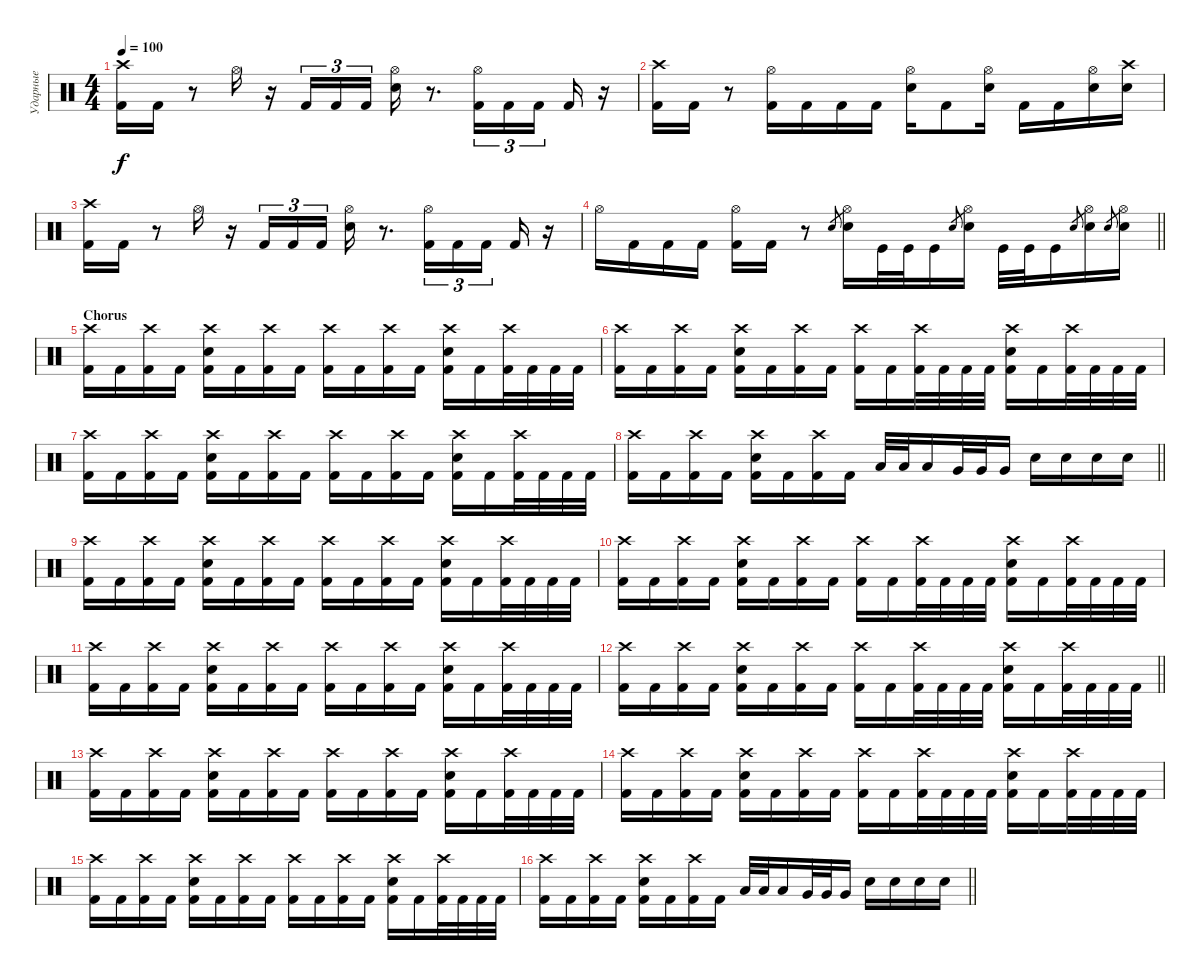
\track ("Ударные" "Ударные") {instrument percussion}
\staff {score}
\articulation defaults
\ts (4 4)
\tempo 100
\clef neutral
\ks c
("Crash high (hit)" "Kick (hit) 2").16{dy f} "Kick (hit) 2".16 r.8 "Hi-Hat (open)".16 r.16 "Kick (hit) 2".16{tu (3 2)} "Kick (hit) 2".16{tu (3 2)} "Kick (hit) 2".16{tu (3 2)} ("Hi-Hat (open)" "Electric Snare (hit)").16 r.8{d} ("Hi-Hat (open)" "Kick (hit) 2").16{tu (3 2)} "Kick (hit) 2".16{tu (3 2)} "Kick (hit) 2".16{tu (3 2) beam splitsecondary} "Kick (hit) 2".16 r.16 |
("Crash high (hit)" "Kick (hit) 2").16 "Kick (hit) 2".16 r.8 ("Hi-Hat (open)" "Kick (hit) 2").16 "Kick (hit) 2".16 "Kick (hit) 2".16 "Kick (hit) 2".16 ("Hi-Hat (open)" "Electric Snare (hit)").16 "Kick (hit) 2".8 ("Hi-Hat (open)" "Electric Snare (hit)").16 "Kick (hit) 2".16 "Kick (hit) 2".16 ("Hi-Hat (open)" "Electric Snare (hit)").16 ("Crash high (hit)" "Electric Snare (hit)").16 |
("Crash high (hit)" "Kick (hit) 2").16 "Kick (hit) 2".16 r.8 "Hi-Hat (open)".16 r.16 "Kick (hit) 2".16{tu (3 2)} "Kick (hit) 2".16{tu (3 2)} "Kick (hit) 2".16{tu (3 2)} ("Hi-Hat (open)" "Electric Snare (hit)").16 r.8{d} ("Hi-Hat (open)" "Kick (hit) 2").16{tu (3 2)} "Kick (hit) 2".16{tu (3 2)} "Kick (hit) 2".16{tu (3 2) beam splitsecondary} "Kick (hit) 2".16 r.16 |
\barLineRight lightlight "Hi-Hat (open)".16 "Kick (hit) 2".16 "Kick (hit) 2".16 "Kick (hit) 2".16
("Hi-Hat (open)" "Kick (hit) 2").16 "Kick (hit) 2".16 r.8 "Electric Snare (hit)".8{gr} ("Hi-Hat (open)" "Electric Snare (hit)").16 "Kick (hit)".32 "Kick (hit)".32 "Kick (hit)".16 "Electric Snare (hit)".8{gr} ("Hi-Hat (open)" "Electric Snare (hit)").16 "Kick (hit)".32 "Kick (hit)".32 "Kick (hit)".16 "Electric Snare (hit)".8{gr} ("Hi-Hat (open)" "Electric Snare (hit)").16 "Electric Snare (hit)".8{gr} ("Hi-Hat (open)" "Electric Snare (hit)").16 |
\section ("" "Chorus")
("Crash high (hit)" "Kick (hit) 2").16 "Kick (hit) 2".16 ("Crash high (hit)" "Kick (hit) 2").16 "Kick (hit) 2".16 ("Crash high (hit)" "Electric Snare (hit)" "Kick (hit) 2").16 "Kick (hit) 2".16 ("Crash high (hit)" "Kick (hit) 2").16 "Kick (hit) 2".16 ("Crash high (hit)" "Kick (hit) 2").16 "Kick (hit) 2".16 ("Crash high (hit)" "Kick (hit) 2").16 "Kick (hit) 2".16 ("Crash high (hit)" "Electric Snare (hit)" "Kick (hit) 2").16 "Kick (hit) 2".16 ("Crash high (hit)" "Kick (hit) 2").32 "Kick (hit) 2".32 "Kick (hit) 2".32 "Kick (hit) 2".32 |
("Crash high (hit)" "Kick (hit) 2").16 "Kick (hit) 2".16 ("Crash high (hit)" "Kick (hit) 2").16 "Kick (hit) 2".16 ("Crash high (hit)" "Electric Snare (hit)" "Kick (hit) 2").16 "Kick (hit) 2".16 ("Crash high (hit)" "Kick (hit) 2").16 "Kick (hit) 2".16 ("Crash high (hit)" "Kick (hit) 2").16 "Kick (hit) 2".16 ("Crash high (hit)" "Kick (hit) 2").32 "Kick (hit) 2".32 "Kick (hit) 2".32 "Kick (hit) 2".32 ("Crash high (hit)" "Electric Snare (hit)" "Kick (hit) 2").16 "Kick (hit) 2".16 ("Crash high (hit)" "Kick (hit) 2").32 "Kick (hit) 2".32 "Kick (hit) 2".32 "Kick (hit) 2".32 |
("Crash high (hit)" "Kick (hit) 2").16 "Kick (hit) 2".16 ("Crash high (hit)" "Kick (hit) 2").16 "Kick (hit) 2".16 ("Crash high (hit)" "Electric Snare (hit)" "Kick (hit) 2").16 "Kick (hit) 2".16 ("Crash high (hit)" "Kick (hit) 2").16 "Kick (hit) 2".16 ("Crash high (hit)" "Kick (hit) 2").16 "Kick (hit) 2".16 ("Crash high (hit)" "Kick (hit) 2").16 "Kick (hit) 2".16 ("Crash high (hit)" "Electric Snare (hit)" "Kick (hit) 2").16 "Kick (hit) 2".16 ("Crash high (hit)" "Kick (hit) 2").32 "Kick (hit) 2".32 "Kick (hit) 2".32 "Kick (hit) 2".32 |
\barLineRight lightlight
("Crash high (hit)" "Kick (hit) 2").16 "Kick (hit) 2".16 ("Crash high (hit)" "Kick (hit) 2").16 "Kick (hit) 2".16 ("Crash high (hit)" "Electric Snare (hit)" "Kick (hit) 2").16 "Kick (hit) 2".16 ("Crash high (hit)" "Kick (hit) 2").16 "Kick (hit) 2".16 "Low Tom (hit)".32 "Low Tom (hit)".32 "Low Tom (hit)".16 "Very Low Tom (hit)".32 "Very Low Tom (hit)".32 "Very Low Tom (hit)".16 "Electric Snare (hit)".16 "Electric Snare (hit)".16 "Electric Snare (hit)".16 "Electric Snare (hit)".16 |
("Crash high (hit)" "Kick (hit) 2").16 "Kick (hit) 2".16 ("Crash high (hit)" "Kick (hit) 2").16 "Kick (hit) 2".16 ("Crash high (hit)" "Electric Snare (hit)" "Kick (hit) 2").16 "Kick (hit) 2".16 ("Crash high (hit)" "Kick (hit) 2").16 "Kick (hit) 2".16 ("Crash high (hit)" "Kick (hit) 2").16 "Kick (hit) 2".16 ("Crash high (hit)" "Kick (hit) 2").16 "Kick (hit) 2".16 ("Crash high (hit)" "Electric Snare (hit)" "Kick (hit) 2").16 "Kick (hit) 2".16 ("Crash high (hit)" "Kick (hit) 2").32 "Kick (hit) 2".32 "Kick (hit) 2".32 "Kick (hit) 2".32 |
("Crash high (hit)" "Kick (hit) 2").16 "Kick (hit) 2".16 ("Crash high (hit)" "Kick (hit) 2").16 "Kick (hit) 2".16 ("Crash high (hit)" "Electric Snare (hit)" "Kick (hit) 2").16 "Kick (hit) 2".16 ("Crash high (hit)" "Kick (hit) 2").16 "Kick (hit) 2".16 ("Crash high (hit)" "Kick (hit) 2").16 "Kick (hit) 2".16 ("Crash high (hit)" "Kick (hit) 2").32 "Kick (hit) 2".32 "Kick (hit) 2".32 "Kick (hit) 2".32 ("Crash high (hit)" "Electric Snare (hit)" "Kick (hit) 2").16 "Kick (hit) 2".16 ("Crash high (hit)" "Kick (hit) 2").32 "Kick (hit) 2".32 "Kick (hit) 2".32 "Kick (hit) 2".32 |
("Crash high (hit)" "Kick (hit) 2").16 "Kick (hit) 2".16 ("Crash high (hit)" "Kick (hit) 2").16 "Kick (hit) 2".16 ("Crash high (hit)" "Electric Snare (hit)" "Kick (hit) 2").16 "Kick (hit) 2".16 ("Crash high (hit)" "Kick (hit) 2").16 "Kick (hit) 2".16 ("Crash high (hit)" "Kick (hit) 2").16 "Kick (hit) 2".16 ("Crash high (hit)" "Kick (hit) 2").16 "Kick (hit) 2".16 ("Crash high (hit)" "Electric Snare (hit)" "Kick (hit) 2").16 "Kick (hit) 2".16 ("Crash high (hit)" "Kick (hit) 2").32 "Kick (hit) 2".32 "Kick (hit) 2".32 "Kick (hit) 2".32 |
\barLineRight lightlight
("Crash high (hit)" "Kick (hit) 2").16 "Kick (hit) 2".16 ("Crash high (hit)" "Kick (hit) 2").16 "Kick (hit) 2".16 ("Crash high (hit)" "Electric Snare (hit)" "Kick (hit) 2").16 "Kick (hit) 2".16 ("Crash high (hit)" "Kick (hit) 2").16 "Kick (hit) 2".16 ("Crash high (hit)" "Kick (hit) 2").16 "Kick (hit) 2".16 ("Crash high (hit)" "Kick (hit) 2").32 "Kick (hit) 2".32 "Kick (hit) 2".32 "Kick (hit) 2".32 ("Crash high (hit)" "Electric Snare (hit)" "Kick (hit) 2").16 "Kick (hit) 2".16 ("Crash high (hit)" "Kick (hit) 2").32 "Kick (hit) 2".32 "Kick (hit) 2".32 "Kick (hit) 2".32 |
("Crash high (hit)" "Kick (hit) 2").16 "Kick (hit) 2".16 ("Crash high (hit)" "Kick (hit) 2").16 "Kick (hit) 2".16 ("Crash high (hit)" "Electric Snare (hit)" "Kick (hit) 2").16 "Kick (hit) 2".16 ("Crash high (hit)" "Kick (hit) 2").16 "Kick (hit) 2".16 ("Crash high (hit)" "Kick (hit) 2").16 "Kick (hit) 2".16 ("Crash high (hit)" "Kick (hit) 2").16 "Kick (hit) 2".16 ("Crash high (hit)" "Electric Snare (hit)" "Kick (hit) 2").16 "Kick (hit) 2".16 ("Crash high (hit)" "Kick (hit) 2").32 "Kick (hit) 2".32 "Kick (hit) 2".32 "Kick (hit) 2".32 |
("Crash high (hit)" "Kick (hit) 2").16 "Kick (hit) 2".16 ("Crash high (hit)" "Kick (hit) 2").16 "Kick (hit) 2".16 ("Crash high (hit)" "Electric Snare (hit)" "Kick (hit) 2").16 "Kick (hit) 2".16 ("Crash high (hit)" "Kick (hit) 2").16 "Kick (hit) 2".16 ("Crash high (hit)" "Kick (hit) 2").16 "Kick (hit) 2".16 ("Crash high (hit)" "Kick (hit) 2").32 "Kick (hit) 2".32 "Kick (hit) 2".32 "Kick (hit) 2".32 ("Crash high (hit)" "Electric Snare (hit)" "Kick (hit) 2").16 "Kick (hit) 2".16 ("Crash high (hit)" "Kick (hit) 2").32 "Kick (hit) 2".32 "Kick (hit) 2".32 "Kick (hit) 2".32 |
("Crash high (hit)" "Kick (hit) 2").16 "Kick (hit) 2".16 ("Crash high (hit)" "Kick (hit) 2").16 "Kick (hit) 2".16 ("Crash high (hit)" "Electric Snare (hit)" "Kick (hit) 2").16 "Kick (hit) 2".16 ("Crash high (hit)" "Kick (hit) 2").16 "Kick (hit) 2".16 ("Crash high (hit)" "Kick (hit) 2").16 "Kick (hit) 2".16 ("Crash high (hit)" "Kick (hit) 2").16 "Kick (hit) 2".16 ("Crash high (hit)" "Electric Snare (hit)" "Kick (hit) 2").16 "Kick (hit) 2".16 ("Crash high (hit)" "Kick (hit) 2").32 "Kick (hit) 2".32 "Kick (hit) 2".32 "Kick (hit) 2".32 |
\barLineRight lightlight
("Crash high (hit)" "Kick (hit) 2").16 "Kick (hit) 2".16 ("Crash high (hit)" "Kick (hit) 2").16 "Kick (hit) 2".16 ("Crash high (hit)" "Electric Snare (hit)" "Kick (hit) 2").16 "Kick (hit) 2".16 ("Crash high (hit)" "Kick (hit) 2").16 "Kick (hit) 2".16 "Low Tom (hit)".32 "Low Tom (hit)".32 "Low Tom (hit)".16 "Very Low Tom (hit)".32 "Very Low Tom (hit)".32 "Very Low Tom (hit)".16 "Electric Snare (hit)".16 "Electric Snare (hit)".16 "Electric Snare (hit)".16 "Electric Snare (hit)".16
